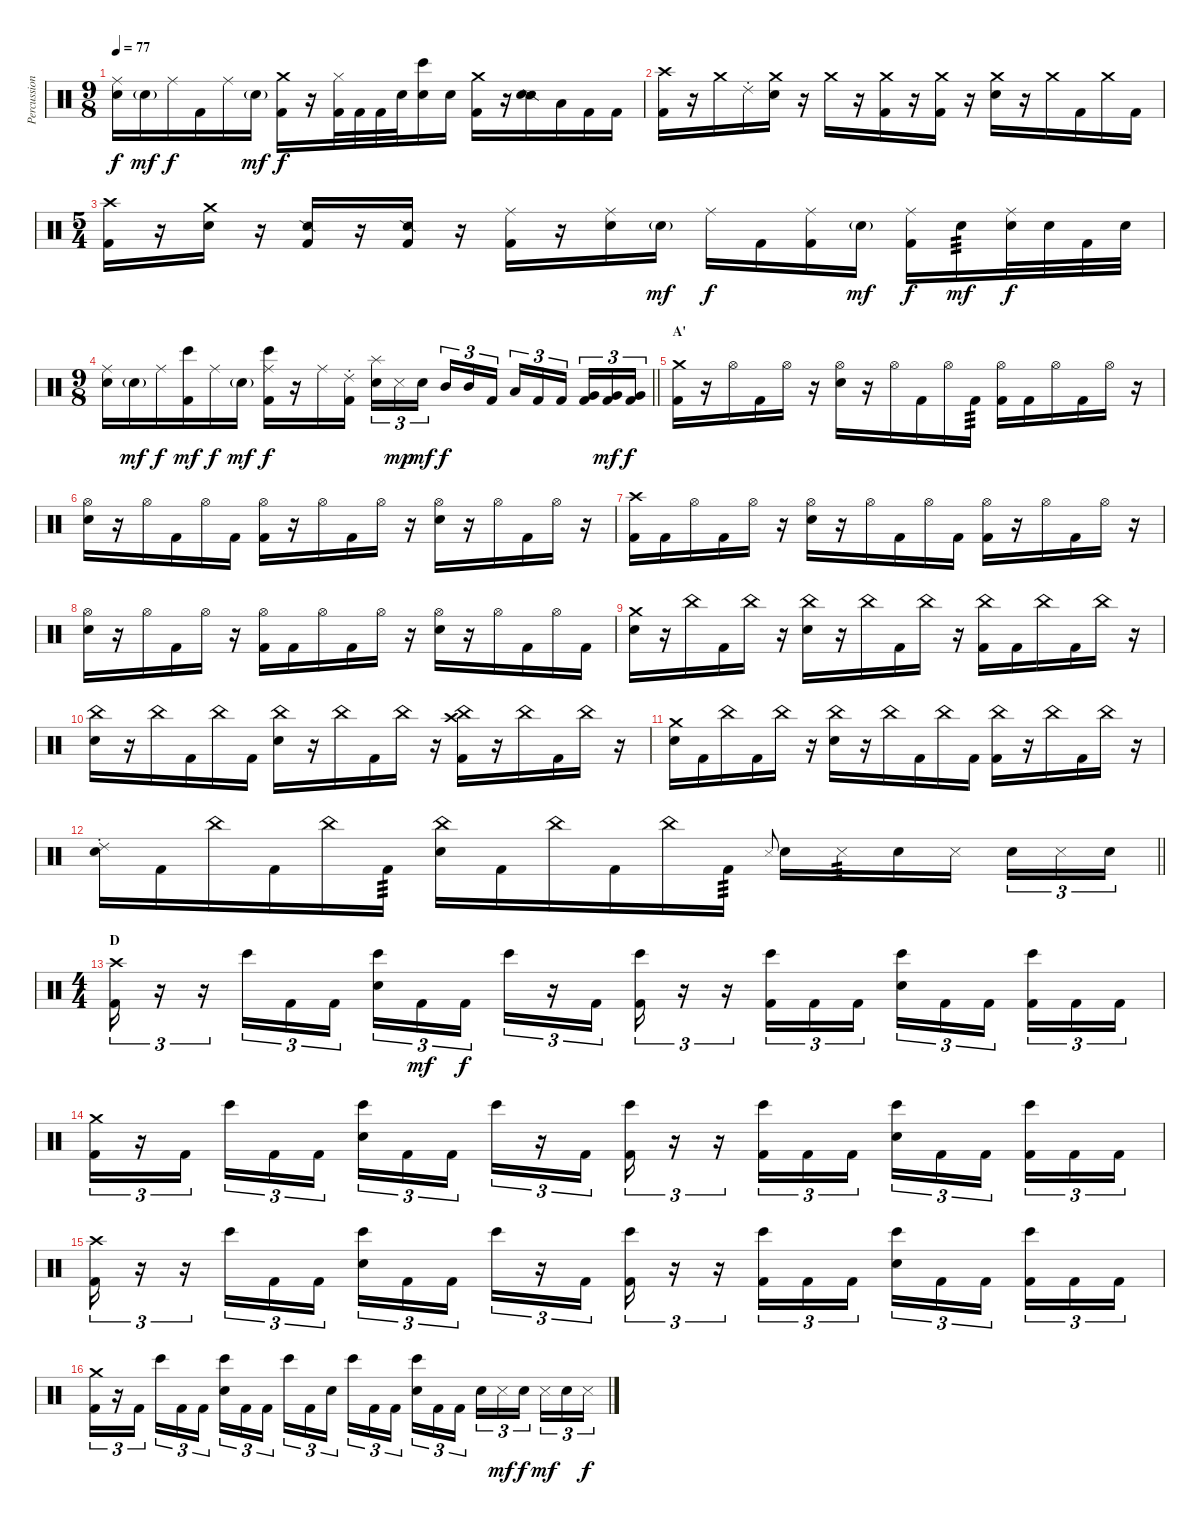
\track ("Percussion" "Percussion") {solo instrument percussion}
\staff {score}
\articulation defaults
\ts (9 8)
\tempo 77
\clef neutral
\ks c
("Ride (middle)" "Snare (hit) 2").16{dy f} "Snare (hit) 2"{g}.16{dy mf} "Ride (middle)".16{dy f} "Kick (hit) 2".16 "Ride (middle)".16 "Snare (hit) 2"{g}.16{dy mf} ("Crash medium (hit)" "Kick (hit) 2").16{dy f} r.16 ("Hi-Hat (closed)" "Kick (hit) 2").32 "Kick (hit) 2".32 "Kick (hit) 2".32 "Snare (hit) 2".32 ("Bongo High (hit)" "Snare (hit) 2").16 "Snare (hit) 2".16 ("Crash medium (hit)" "Kick (hit) 2").16 r.16 ("Snare (side stick) 2" "Snare (hit) 2").16 "Low Tom (hit)".16 "Kick (hit) 2".16 "Kick (hit) 2".16 |
("Crash high (hit)" "Kick (hit) 2").16 r.16 "Crash medium (hit)".16 "Ride (choke) 2".16 ("Crash medium (hit)" "Snare (hit) 2").16 r.16 "Crash medium (hit)".16 r.16 ("Crash medium (hit)" "Kick (hit) 2").16 r.16 ("Crash medium (hit)" "Kick (hit) 2").16 r.16 ("Crash medium (hit)" "Snare (hit) 2").16 r.16 "Crash medium (hit)".16 "Kick (hit) 2".16 "Crash medium (hit)".16 "Kick (hit) 2".16 |
\ts (5 4)
("Crash high (hit)" "Kick (hit) 2").16 r.16 ("Crash medium (hit)" "Snare (hit) 2").16 r.16 ("Snare (side stick) 2" "Kick (hit) 2").16 r.16 ("Snare (side stick) 2" "Kick (hit) 2").16 r.16 ("Ride (middle)" "Kick (hit) 2").16 r.16 ("Ride (middle)" "Snare (hit) 2").16 "Snare (hit) 2"{g}.16{dy mf} "Ride (middle)".16{dy f} "Kick (hit) 2".16 ("Ride (middle)" "Kick (hit) 2").16 "Snare (hit) 2"{g}.16{dy mf} ("Ride (middle)" "Kick (hit) 2").16{dy f} "Snare (hit) 2".16{tp 3 dy mf} ("Ride (middle)" "Snare (hit) 2").32{dy f} "Snare (hit) 2".32 "Kick (hit) 2".32 "Snare (hit) 2".32 |
\ts (9 8)
\barLineRight lightlight
("Ride (middle)" "Snare (hit) 2").16 "Snare (hit) 2"{g}.16{dy mf} "Ride (middle)".16{dy f} ("Bongo High (hit)" "Kick (hit) 2").16{dy mf} "Ride (middle)".16{dy f} "Snare (hit) 2"{g}.16{dy mf} ("Ride (middle)" "Bongo High (hit)" "Kick (hit) 2").16{dy f} r.16 "Ride (middle)".16 ("Ride (choke) 2" "Kick (hit) 2").16{beam splitsecondary} ("Splash (hit)" "Snare (hit) 2").16{tu (3 2)} "Metronome (hit)".16{tu (3 2) dy mp} "Snare (hit) 2".16{tu (3 2) dy mf} "Mid Tom (hit)".16{tu (3 2) dy f} "Mid Tom (hit)".16{tu (3 2)} "Kick (hit) 2".16{tu (3 2) beam splitsecondary} "Low Tom (hit)".16{tu (3 2)} "Kick (hit) 2".16{tu (3 2)} "Kick (hit) 2".16{tu (3 2) beam splitsecondary} ("Very Low Tom (hit)" "Kick (hit) 2").16{tu (3 2)} ("Very Low Tom (hit)" "Kick (hit) 2").16{tu (3 2) dy mf} ("Very Low Tom (hit)" "Kick (hit) 2").16{tu (3 2) dy f} |
\section ("" "A'")
("Crash medium (hit)" "Kick (hit) 2").16 r.16 "Hi-Hat (open)".16 "Kick (hit) 2".16 "Hi-Hat (open)".16 r.16 ("Hi-Hat (open)" "Snare (hit) 2").16 r.16 "Hi-Hat (open)".16 "Kick (hit) 2".16 "Hi-Hat (open)".16 "Kick (hit) 2".16{tp 3} ("Hi-Hat (open)" "Kick (hit) 2").16 "Kick (hit) 2".16 "Hi-Hat (open)".16 "Kick (hit) 2".16 "Hi-Hat (open)".16 r.16 |
("Hi-Hat (open)" "Snare (hit) 2").16 r.16 "Hi-Hat (open)".16 "Kick (hit) 2".16 "Hi-Hat (open)".16 "Kick (hit) 2".16 ("Hi-Hat (open)" "Kick (hit) 2").16 r.16 "Hi-Hat (open)".16 "Kick (hit) 2".16 "Hi-Hat (open)".16 r.16 ("Hi-Hat (open)" "Snare (hit) 2").16 r.16 "Hi-Hat (open)".16 "Kick (hit) 2".16 "Hi-Hat (open)".16 r.16 |
("Crash high (hit)" "Kick (hit) 2").16 "Kick (hit) 2".16 "Hi-Hat (open)".16 "Kick (hit) 2".16 "Hi-Hat (open)".16 r.16 ("Hi-Hat (open)" "Snare (hit) 2").16 r.16 "Hi-Hat (open)".16 "Kick (hit) 2".16 "Hi-Hat (open)".16 "Kick (hit) 2".16 ("Hi-Hat (open)" "Kick (hit) 2").16 r.16 "Hi-Hat (open)".16 "Kick (hit) 2".16 "Hi-Hat (open)".16 r.16 |
("Hi-Hat (open)" "Snare (hit) 2").16 r.16 "Hi-Hat (open)".16 "Kick (hit) 2".16 "Hi-Hat (open)".16 r.16 ("Hi-Hat (open)" "Kick (hit) 2").16 "Kick (hit) 2".16 "Hi-Hat (open)".16 "Kick (hit) 2".16 "Hi-Hat (open)".16 r.16 ("Hi-Hat (open)" "Snare (hit) 2").16 r.16 "Hi-Hat (open)".16 "Kick (hit) 2".16 "Hi-Hat (open)".16 "Kick (hit) 2".16 |
("Crash medium (hit)" "Snare (hit) 2").16 r.16 "China (hit)".16 "Kick (hit) 2".16 "China (hit)".16 r.16 ("China (hit)" "Snare (hit) 2").16 r.16 "China (hit)".16 "Kick (hit) 2".16 "China (hit)".16 r.16 ("China (hit)" "Kick (hit) 2").16 "Kick (hit) 2".16 "China (hit)".16 "Kick (hit) 2".16 "China (hit)".16 r.16 |
("China (hit)" "Snare (hit) 2").16 r.16 "China (hit)".16 "Kick (hit) 2".16 "China (hit)".16 "Kick (hit) 2".16 ("China (hit)" "Snare (hit) 2").16 r.16 "China (hit)".16 "Kick (hit) 2".16 "China (hit)".16 r.16 ("China (hit)" "Crash high (hit)" "Kick (hit) 2").16 r.16 "China (hit)".16 "Kick (hit) 2".16 "China (hit)".16 r.16 |
("Crash medium (hit)" "Snare (hit) 2").16 "Kick (hit) 2".16 "China (hit)".16 "Kick (hit) 2".16 "China (hit)".16 r.16 ("China (hit)" "Snare (hit) 2").16 r.16 "China (hit)".16 "Kick (hit) 2".16 "China (hit)".16 "Kick (hit) 2".16 ("China (hit)" "Kick (hit) 2").16 r.16 "China (hit)".16 "Kick (hit) 2".16 "China (hit)".16 r.16 |
\barLineRight lightlight
("Ride (choke) 2" "Snare (hit) 2").16 "Kick (hit) 2".16 "China (hit)".16 "Kick (hit) 2".16 "China (hit)".16 "Kick (hit) 2".16{tp 3} ("China (hit)" "Snare (hit) 2").16 "Kick (hit) 2".16 "China (hit)".16 "Kick (hit) 2".16 "China (hit)".16 "Kick (hit) 2".16{tp 3} "Metronome (hit)".8{gr onbeat} "Snare (hit) 2".16 "Metronome (hit)".16{tp 3} "Snare (hit) 2".16 "Metronome (hit)".16{beam splitsecondary} "Snare (hit) 2".16{tu (3 2)} "Metronome (hit)".16{tu (3 2)} "Snare (hit) 2".16{tu (3 2)} |
\ts (4 4)
\section ("" "D")
("Crash high (hit)" "Kick (hit) 2").16{tu (3 2)} r.16{tu (3 2)} r.16{tu (3 2)} "Bongo High (hit)".16{tu (3 2)} "Kick (hit) 2".16{tu (3 2)} "Kick (hit) 2".16{tu (3 2)} ("Bongo High (hit)" "Snare (hit) 2").16{tu (3 2)} "Kick (hit) 2".16{tu (3 2) dy mf} "Kick (hit) 2".16{tu (3 2) dy f beam splitsecondary} "Bongo High (hit)".16{tu (3 2)} r.16{tu (3 2)} "Kick (hit) 2".16{tu (3 2)} ("Bongo High (hit)" "Kick (hit) 2").16{tu (3 2)} r.16{tu (3 2)} r.16{tu (3 2)} ("Bongo High (hit)" "Kick (hit) 2").16{tu (3 2)} "Kick (hit) 2".16{tu (3 2)} "Kick (hit) 2".16{tu (3 2)} ("Bongo High (hit)" "Snare (hit) 2").16{tu (3 2)} "Kick (hit) 2".16{tu (3 2)} "Kick (hit) 2".16{tu (3 2) beam splitsecondary} ("Bongo High (hit)" "Kick (hit) 2").16{tu (3 2)} "Kick (hit) 2".16{tu (3 2)} "Kick (hit) 2".16{tu (3 2)} |
("Crash medium (hit)" "Kick (hit) 2").16{tu (3 2)} r.16{tu (3 2)} "Kick (hit) 2".16{tu (3 2) beam splitsecondary} "Bongo High (hit)".16{tu (3 2)} "Kick (hit) 2".16{tu (3 2)} "Kick (hit) 2".16{tu (3 2)} ("Bongo High (hit)" "Snare (hit) 2").16{tu (3 2)} "Kick (hit) 2".16{tu (3 2)} "Kick (hit) 2".16{tu (3 2) beam splitsecondary} "Bongo High (hit)".16{tu (3 2)} r.16{tu (3 2)} "Kick (hit) 2".16{tu (3 2)} ("Bongo High (hit)" "Kick (hit) 2").16{tu (3 2)} r.16{tu (3 2)} r.16{tu (3 2)} ("Bongo High (hit)" "Kick (hit) 2").16{tu (3 2)} "Kick (hit) 2".16{tu (3 2)} "Kick (hit) 2".16{tu (3 2)} ("Bongo High (hit)" "Snare (hit) 2").16{tu (3 2)} "Kick (hit) 2".16{tu (3 2)} "Kick (hit) 2".16{tu (3 2) beam splitsecondary} ("Bongo High (hit)" "Kick (hit) 2").16{tu (3 2)} "Kick (hit) 2".16{tu (3 2)} "Kick (hit) 2".16{tu (3 2)} |
("Crash high (hit)" "Kick (hit) 2").16{tu (3 2)} r.16{tu (3 2)} r.16{tu (3 2)} "Bongo High (hit)".16{tu (3 2)} "Kick (hit) 2".16{tu (3 2)} "Kick (hit) 2".16{tu (3 2)} ("Bongo High (hit)" "Snare (hit) 2").16{tu (3 2)} "Kick (hit) 2".16{tu (3 2)} "Kick (hit) 2".16{tu (3 2) beam splitsecondary} "Bongo High (hit)".16{tu (3 2)} r.16{tu (3 2)} "Kick (hit) 2".16{tu (3 2)} ("Bongo High (hit)" "Kick (hit) 2").16{tu (3 2)} r.16{tu (3 2)} r.16{tu (3 2)} ("Bongo High (hit)" "Kick (hit) 2").16{tu (3 2)} "Kick (hit) 2".16{tu (3 2)} "Kick (hit) 2".16{tu (3 2)} ("Bongo High (hit)" "Snare (hit) 2").16{tu (3 2)} "Kick (hit) 2".16{tu (3 2)} "Kick (hit) 2".16{tu (3 2) beam splitsecondary} ("Bongo High (hit)" "Kick (hit) 2").16{tu (3 2)} "Kick (hit) 2".16{tu (3 2)} "Kick (hit) 2".16{tu (3 2)} |
("Crash medium (hit)" "Kick (hit) 2").16{tu (3 2)} r.16{tu (3 2)} "Kick (hit) 2".16{tu (3 2) beam splitsecondary} "Bongo High (hit)".16{tu (3 2)} "Kick (hit) 2".16{tu (3 2)} "Kick (hit) 2".16{tu (3 2)} ("Bongo High (hit)" "Snare (hit) 2").16{tu (3 2)} "Kick (hit) 2".16{tu (3 2)} "Kick (hit) 2".16{tu (3 2) beam splitsecondary} "Bongo High (hit)".16{tu (3 2)} "Kick (hit) 2".16{tu (3 2)} "Snare (hit) 2".16{tu (3 2)} "Bongo High (hit)".16{tu (3 2)} "Kick (hit) 2".16{tu (3 2)} "Kick (hit) 2".16{tu (3 2) beam splitsecondary} ("Bongo High (hit)" "Snare (hit) 2").16{tu (3 2)} "Kick (hit) 2".16{tu (3 2)} "Kick (hit) 2".16{tu (3 2)} "Snare (hit) 2".16{tu (3 2)} "Metronome (hit)".16{tu (3 2) dy mf} "Snare (hit) 2".16{tu (3 2) dy f beam splitsecondary} "Metronome (hit)".16{tu (3 2) dy mf} "Snare (hit) 2".16{tu (3 2)} "Metronome (hit)".16{tu (3 2) dy f}
